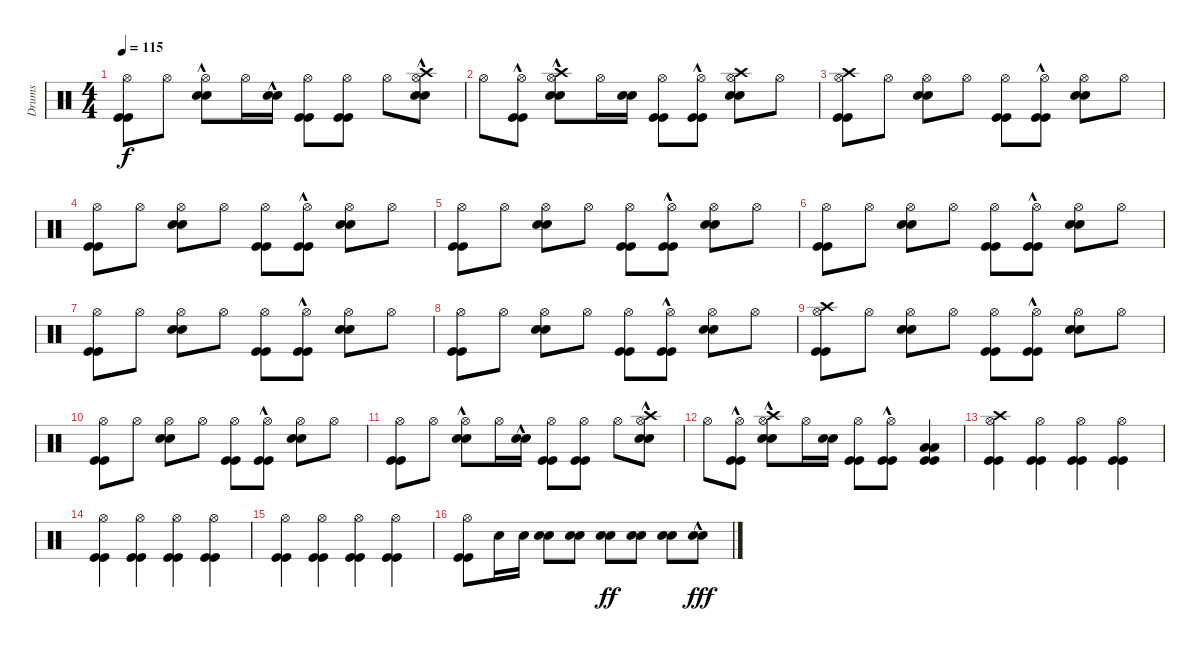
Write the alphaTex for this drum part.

\track ("Drums" "Drums") {instrument percussion}
\staff {score}
\articulation defaults
\ts (4 4)
\tempo 115
\clef neutral
\ks c
("Kick (hit)" "Kick (hit)" "Hi-Hat (open)").8{dy f} "Hi-Hat (open)".8 ("Snare (hit) 2"{hac} "Snare (hit) 2"{hac} "Hi-Hat (open)").8 "Hi-Hat (open)".16 ("Snare (hit) 2"{hac} "Snare (hit) 2"{hac}).16 ("Kick (hit)" "Kick (hit)" "Hi-Hat (open)").8 ("Kick (hit)" "Kick (hit)" "Hi-Hat (open)").8 "Hi-Hat (open)".8 ("Snare (hit) 2"{hac} "Snare (hit) 2"{hac} "Hi-Hat (open)" "Crash high (hit)"{hac}).8 |
"Hi-Hat (open)".8 ("Kick (hit)"{hac} "Kick (hit)"{hac} "Hi-Hat (open)").8 ("Snare (hit) 2"{hac} "Snare (hit) 2"{hac} "Hi-Hat (open)" "Crash high (hit)").8 "Hi-Hat (open)".16 ("Snare (hit) 2" "Snare (hit) 2").16 ("Kick (hit)" "Kick (hit)" "Hi-Hat (open)").8 ("Kick (hit)"{hac} "Kick (hit)"{hac} "Hi-Hat (open)").8 ("Snare (hit) 2" "Snare (hit) 2" "Hi-Hat (open)" "Crash high (hit)").8 "Hi-Hat (open)".8 |
("Kick (hit)" "Kick (hit)" "Hi-Hat (open)" "Crash high (hit)").8 "Hi-Hat (open)".8 ("Snare (hit) 2" "Snare (hit) 2" "Hi-Hat (open)").8 "Hi-Hat (open)".8 ("Kick (hit)" "Kick (hit)" "Hi-Hat (open)").8 ("Kick (hit)"{hac} "Kick (hit)"{hac} "Hi-Hat (open)").8 ("Snare (hit) 2" "Snare (hit) 2" "Hi-Hat (open)").8 "Hi-Hat (open)".8 |
("Kick (hit)" "Kick (hit)" "Hi-Hat (open)").8 "Hi-Hat (open)".8 ("Snare (hit) 2" "Snare (hit) 2" "Hi-Hat (open)").8 "Hi-Hat (open)".8 ("Kick (hit)" "Kick (hit)" "Hi-Hat (open)").8 ("Kick (hit)"{hac} "Kick (hit)"{hac} "Hi-Hat (open)").8 ("Snare (hit) 2" "Snare (hit) 2" "Hi-Hat (open)").8 "Hi-Hat (open)".8 |
("Kick (hit)" "Kick (hit)" "Hi-Hat (open)").8 "Hi-Hat (open)".8 ("Snare (hit) 2" "Snare (hit) 2" "Hi-Hat (open)").8 "Hi-Hat (open)".8 ("Kick (hit)" "Kick (hit)" "Hi-Hat (open)").8 ("Kick (hit)"{hac} "Kick (hit)"{hac} "Hi-Hat (open)").8 ("Snare (hit) 2" "Snare (hit) 2" "Hi-Hat (open)").8 "Hi-Hat (open)".8 |
("Kick (hit)" "Kick (hit)" "Hi-Hat (open)").8 "Hi-Hat (open)".8 ("Snare (hit) 2" "Snare (hit) 2" "Hi-Hat (open)").8 "Hi-Hat (open)".8 ("Kick (hit)" "Kick (hit)" "Hi-Hat (open)").8 ("Kick (hit)"{hac} "Kick (hit)"{hac} "Hi-Hat (open)").8 ("Snare (hit) 2" "Snare (hit) 2" "Hi-Hat (open)").8 "Hi-Hat (open)".8 |
("Kick (hit)" "Kick (hit)" "Hi-Hat (open)").8 "Hi-Hat (open)".8 ("Snare (hit) 2" "Snare (hit) 2" "Hi-Hat (open)").8 "Hi-Hat (open)".8 ("Kick (hit)" "Kick (hit)" "Hi-Hat (open)").8 ("Kick (hit)"{hac} "Kick (hit)"{hac} "Hi-Hat (open)").8 ("Snare (hit) 2" "Snare (hit) 2" "Hi-Hat (open)").8 "Hi-Hat (open)".8 |
("Kick (hit)" "Kick (hit)" "Hi-Hat (open)").8 "Hi-Hat (open)".8 ("Snare (hit) 2" "Snare (hit) 2" "Hi-Hat (open)").8 "Hi-Hat (open)".8 ("Kick (hit)" "Kick (hit)" "Hi-Hat (open)").8 ("Kick (hit)"{hac} "Kick (hit)"{hac} "Hi-Hat (open)").8 ("Snare (hit) 2" "Snare (hit) 2" "Hi-Hat (open)").8 "Hi-Hat (open)".8 |
("Kick (hit)" "Kick (hit)" "Hi-Hat (open)" "Crash high (hit)").8 "Hi-Hat (open)".8 ("Snare (hit) 2" "Snare (hit) 2" "Hi-Hat (open)").8 "Hi-Hat (open)".8 ("Kick (hit)" "Kick (hit)" "Hi-Hat (open)").8 ("Kick (hit)"{hac} "Kick (hit)"{hac} "Hi-Hat (open)").8 ("Snare (hit) 2" "Snare (hit) 2" "Hi-Hat (open)").8 "Hi-Hat (open)".8 |
("Kick (hit)" "Kick (hit)" "Hi-Hat (open)").8 "Hi-Hat (open)".8 ("Snare (hit) 2" "Snare (hit) 2" "Hi-Hat (open)").8 "Hi-Hat (open)".8 ("Kick (hit)" "Kick (hit)" "Hi-Hat (open)").8 ("Kick (hit)"{hac} "Kick (hit)"{hac} "Hi-Hat (open)").8 ("Snare (hit) 2" "Snare (hit) 2" "Hi-Hat (open)").8 "Hi-Hat (open)".8 |
("Kick (hit)" "Kick (hit)" "Hi-Hat (open)").8 "Hi-Hat (open)".8 ("Snare (hit) 2"{hac} "Snare (hit) 2"{hac} "Hi-Hat (open)").8 "Hi-Hat (open)".16 ("Snare (hit) 2"{hac} "Snare (hit) 2"{hac}).16 ("Kick (hit)" "Kick (hit)" "Hi-Hat (open)").8 ("Kick (hit)" "Kick (hit)" "Hi-Hat (open)").8 "Hi-Hat (open)".8 ("Snare (hit) 2"{hac} "Snare (hit) 2"{hac} "Hi-Hat (open)" "Crash high (hit)"{hac}).8 |
"Hi-Hat (open)".8 ("Kick (hit)"{hac} "Kick (hit)"{hac} "Hi-Hat (open)").8 ("Snare (hit) 2"{hac} "Snare (hit) 2"{hac} "Hi-Hat (open)" "Crash high (hit)"{hac}).8 "Hi-Hat (open)".16 ("Snare (hit) 2" "Snare (hit) 2").16 ("Kick (hit)" "Kick (hit)" "Hi-Hat (open)").8 ("Kick (hit)" "Kick (hit)" "Hi-Hat (open)"{hac}).8 ("Kick (hit)" "Kick (hit)" "Low Floor Tom (hit)" "Low Floor Tom (hit)").4 |
("Kick (hit)" "Kick (hit)" "Hi-Hat (open)" "Crash high (hit)").4 ("Kick (hit)" "Kick (hit)" "Hi-Hat (open)").4 ("Kick (hit)" "Kick (hit)" "Hi-Hat (open)").4 ("Kick (hit)" "Kick (hit)" "Hi-Hat (open)").4 |
("Kick (hit)" "Kick (hit)" "Hi-Hat (open)").4 ("Kick (hit)" "Kick (hit)" "Hi-Hat (open)").4 ("Kick (hit)" "Kick (hit)" "Hi-Hat (open)").4 ("Kick (hit)" "Kick (hit)" "Hi-Hat (open)").4 |
("Kick (hit)" "Kick (hit)" "Hi-Hat (open)").4 ("Kick (hit)" "Kick (hit)" "Hi-Hat (open)").4 ("Kick (hit)" "Kick (hit)" "Hi-Hat (open)").4 ("Kick (hit)" "Kick (hit)" "Hi-Hat (open)").4 |
("Kick (hit)" "Kick (hit)" "Hi-Hat (open)").8 "Snare (hit) 2".16 "Snare (hit) 2".16 ("Snare (hit) 2" "Snare (hit) 2").8 ("Snare (hit) 2" "Snare (hit) 2").8 ("Snare (hit) 2" "Snare (hit) 2").8{dy ff} ("Snare (hit) 2" "Snare (hit) 2").8 ("Snare (hit) 2" "Snare (hit) 2").8 ("Snare (hit) 2"{hac} "Snare (hit) 2"{hac}).8{dy fff}
